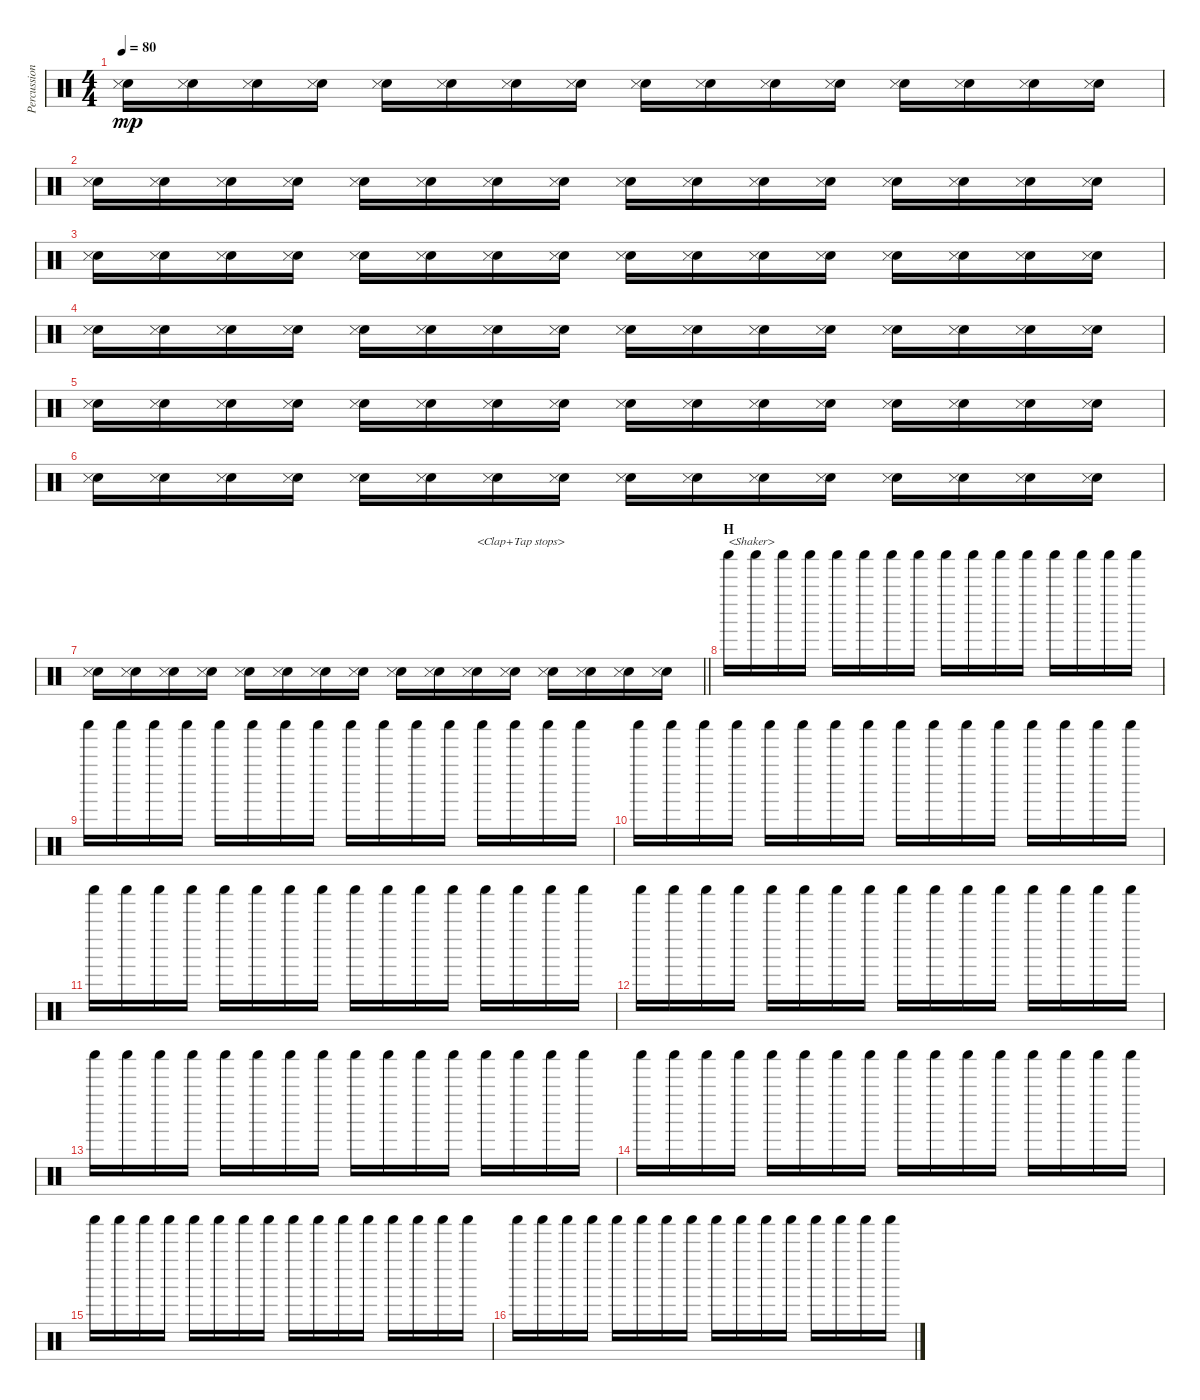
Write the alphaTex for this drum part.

\track ("Percussion" "Percussion") {instrument percussion}
\staff {score}
\articulation defaults
\ts (4 4)
\tempo 80
\clef neutral
\ks c
("Hand Clap (hit)" "Snare (side stick) 3").16{dy mp} ("Hand Clap (hit)" "Snare (side stick) 3").16 ("Hand Clap (hit)" "Snare (side stick) 3").16 ("Hand Clap (hit)" "Snare (side stick) 3").16 ("Hand Clap (hit)" "Snare (side stick) 3").16 ("Hand Clap (hit)" "Snare (side stick) 3").16 ("Hand Clap (hit)" "Snare (side stick) 3").16 ("Hand Clap (hit)" "Snare (side stick) 3").16 ("Hand Clap (hit)" "Snare (side stick) 3").16 ("Hand Clap (hit)" "Snare (side stick) 3").16 ("Hand Clap (hit)" "Snare (side stick) 3").16 ("Hand Clap (hit)" "Snare (side stick) 3").16 ("Hand Clap (hit)" "Snare (side stick) 3").16 ("Hand Clap (hit)" "Snare (side stick) 3").16 ("Hand Clap (hit)" "Snare (side stick) 3").16 ("Hand Clap (hit)" "Snare (side stick) 3").16 |
("Hand Clap (hit)" "Snare (side stick) 3").16 ("Hand Clap (hit)" "Snare (side stick) 3").16 ("Hand Clap (hit)" "Snare (side stick) 3").16 ("Hand Clap (hit)" "Snare (side stick) 3").16 ("Hand Clap (hit)" "Snare (side stick) 3").16 ("Hand Clap (hit)" "Snare (side stick) 3").16 ("Hand Clap (hit)" "Snare (side stick) 3").16 ("Hand Clap (hit)" "Snare (side stick) 3").16 ("Hand Clap (hit)" "Snare (side stick) 3").16 ("Hand Clap (hit)" "Snare (side stick) 3").16 ("Hand Clap (hit)" "Snare (side stick) 3").16 ("Hand Clap (hit)" "Snare (side stick) 3").16 ("Hand Clap (hit)" "Snare (side stick) 3").16 ("Hand Clap (hit)" "Snare (side stick) 3").16 ("Hand Clap (hit)" "Snare (side stick) 3").16 ("Hand Clap (hit)" "Snare (side stick) 3").16 |
("Hand Clap (hit)" "Snare (side stick) 3").16 ("Hand Clap (hit)" "Snare (side stick) 3").16 ("Hand Clap (hit)" "Snare (side stick) 3").16 ("Hand Clap (hit)" "Snare (side stick) 3").16 ("Hand Clap (hit)" "Snare (side stick) 3").16 ("Hand Clap (hit)" "Snare (side stick) 3").16 ("Hand Clap (hit)" "Snare (side stick) 3").16 ("Hand Clap (hit)" "Snare (side stick) 3").16 ("Hand Clap (hit)" "Snare (side stick) 3").16 ("Hand Clap (hit)" "Snare (side stick) 3").16 ("Hand Clap (hit)" "Snare (side stick) 3").16 ("Hand Clap (hit)" "Snare (side stick) 3").16 ("Hand Clap (hit)" "Snare (side stick) 3").16 ("Hand Clap (hit)" "Snare (side stick) 3").16 ("Hand Clap (hit)" "Snare (side stick) 3").16 ("Hand Clap (hit)" "Snare (side stick) 3").16 |
("Hand Clap (hit)" "Snare (side stick) 3").16 ("Hand Clap (hit)" "Snare (side stick) 3").16 ("Hand Clap (hit)" "Snare (side stick) 3").16 ("Hand Clap (hit)" "Snare (side stick) 3").16 ("Hand Clap (hit)" "Snare (side stick) 3").16 ("Hand Clap (hit)" "Snare (side stick) 3").16 ("Hand Clap (hit)" "Snare (side stick) 3").16 ("Hand Clap (hit)" "Snare (side stick) 3").16 ("Hand Clap (hit)" "Snare (side stick) 3").16 ("Hand Clap (hit)" "Snare (side stick) 3").16 ("Hand Clap (hit)" "Snare (side stick) 3").16 ("Hand Clap (hit)" "Snare (side stick) 3").16 ("Hand Clap (hit)" "Snare (side stick) 3").16 ("Hand Clap (hit)" "Snare (side stick) 3").16 ("Hand Clap (hit)" "Snare (side stick) 3").16 ("Hand Clap (hit)" "Snare (side stick) 3").16 |
("Hand Clap (hit)" "Snare (side stick) 3").16 ("Hand Clap (hit)" "Snare (side stick) 3").16 ("Hand Clap (hit)" "Snare (side stick) 3").16 ("Hand Clap (hit)" "Snare (side stick) 3").16 ("Hand Clap (hit)" "Snare (side stick) 3").16 ("Hand Clap (hit)" "Snare (side stick) 3").16 ("Hand Clap (hit)" "Snare (side stick) 3").16 ("Hand Clap (hit)" "Snare (side stick) 3").16 ("Hand Clap (hit)" "Snare (side stick) 3").16 ("Hand Clap (hit)" "Snare (side stick) 3").16 ("Hand Clap (hit)" "Snare (side stick) 3").16 ("Hand Clap (hit)" "Snare (side stick) 3").16 ("Hand Clap (hit)" "Snare (side stick) 3").16 ("Hand Clap (hit)" "Snare (side stick) 3").16 ("Hand Clap (hit)" "Snare (side stick) 3").16 ("Hand Clap (hit)" "Snare (side stick) 3").16 |
("Hand Clap (hit)" "Snare (side stick) 3").16 ("Hand Clap (hit)" "Snare (side stick) 3").16 ("Hand Clap (hit)" "Snare (side stick) 3").16 ("Hand Clap (hit)" "Snare (side stick) 3").16 ("Hand Clap (hit)" "Snare (side stick) 3").16 ("Hand Clap (hit)" "Snare (side stick) 3").16 ("Hand Clap (hit)" "Snare (side stick) 3").16 ("Hand Clap (hit)" "Snare (side stick) 3").16 ("Hand Clap (hit)" "Snare (side stick) 3").16 ("Hand Clap (hit)" "Snare (side stick) 3").16 ("Hand Clap (hit)" "Snare (side stick) 3").16 ("Hand Clap (hit)" "Snare (side stick) 3").16 ("Hand Clap (hit)" "Snare (side stick) 3").16 ("Hand Clap (hit)" "Snare (side stick) 3").16 ("Hand Clap (hit)" "Snare (side stick) 3").16 ("Hand Clap (hit)" "Snare (side stick) 3").16 |
\barLineRight lightlight
("Hand Clap (hit)" "Snare (side stick) 3").16 ("Hand Clap (hit)" "Snare (side stick) 3").16 ("Hand Clap (hit)" "Snare (side stick) 3").16 ("Hand Clap (hit)" "Snare (side stick) 3").16 ("Hand Clap (hit)" "Snare (side stick) 3").16 ("Hand Clap (hit)" "Snare (side stick) 3").16 ("Hand Clap (hit)" "Snare (side stick) 3").16 ("Hand Clap (hit)" "Snare (side stick) 3").16 ("Hand Clap (hit)" "Snare (side stick) 3").16 ("Hand Clap (hit)" "Snare (side stick) 3").16 ("Hand Clap (hit)" "Snare (side stick) 3").16{txt "<Clap+Tap stops>"} ("Hand Clap (hit)" "Snare (side stick) 3").16 ("Hand Clap (hit)" "Snare (side stick) 3").16 ("Hand Clap (hit)" "Snare (side stick) 3").16 ("Hand Clap (hit)" "Snare (side stick) 3").16 ("Hand Clap (hit)" "Snare (side stick) 3").16 |
\section ("" "H")
"Shaker (hit)".16{txt "<Shaker>"} "Shaker (hit)".16 "Shaker (hit)".16 "Shaker (hit)".16 "Shaker (hit)".16 "Shaker (hit)".16 "Shaker (hit)".16 "Shaker (hit)".16 "Shaker (hit)".16 "Shaker (hit)".16 "Shaker (hit)".16 "Shaker (hit)".16 "Shaker (hit)".16 "Shaker (hit)".16 "Shaker (hit)".16 "Shaker (hit)".16 |
"Shaker (hit)".16 "Shaker (hit)".16 "Shaker (hit)".16 "Shaker (hit)".16 "Shaker (hit)".16 "Shaker (hit)".16 "Shaker (hit)".16 "Shaker (hit)".16 "Shaker (hit)".16 "Shaker (hit)".16 "Shaker (hit)".16 "Shaker (hit)".16 "Shaker (hit)".16 "Shaker (hit)".16 "Shaker (hit)".16 "Shaker (hit)".16 |
"Shaker (hit)".16 "Shaker (hit)".16 "Shaker (hit)".16 "Shaker (hit)".16 "Shaker (hit)".16 "Shaker (hit)".16 "Shaker (hit)".16 "Shaker (hit)".16 "Shaker (hit)".16 "Shaker (hit)".16 "Shaker (hit)".16 "Shaker (hit)".16 "Shaker (hit)".16 "Shaker (hit)".16 "Shaker (hit)".16 "Shaker (hit)".16 |
"Shaker (hit)".16 "Shaker (hit)".16 "Shaker (hit)".16 "Shaker (hit)".16 "Shaker (hit)".16 "Shaker (hit)".16 "Shaker (hit)".16 "Shaker (hit)".16 "Shaker (hit)".16 "Shaker (hit)".16 "Shaker (hit)".16 "Shaker (hit)".16 "Shaker (hit)".16 "Shaker (hit)".16 "Shaker (hit)".16 "Shaker (hit)".16 |
"Shaker (hit)".16 "Shaker (hit)".16 "Shaker (hit)".16 "Shaker (hit)".16 "Shaker (hit)".16 "Shaker (hit)".16 "Shaker (hit)".16 "Shaker (hit)".16 "Shaker (hit)".16 "Shaker (hit)".16 "Shaker (hit)".16 "Shaker (hit)".16 "Shaker (hit)".16 "Shaker (hit)".16 "Shaker (hit)".16 "Shaker (hit)".16 |
"Shaker (hit)".16 "Shaker (hit)".16 "Shaker (hit)".16 "Shaker (hit)".16 "Shaker (hit)".16 "Shaker (hit)".16 "Shaker (hit)".16 "Shaker (hit)".16 "Shaker (hit)".16 "Shaker (hit)".16 "Shaker (hit)".16 "Shaker (hit)".16 "Shaker (hit)".16 "Shaker (hit)".16 "Shaker (hit)".16 "Shaker (hit)".16 |
"Shaker (hit)".16 "Shaker (hit)".16 "Shaker (hit)".16 "Shaker (hit)".16 "Shaker (hit)".16 "Shaker (hit)".16 "Shaker (hit)".16 "Shaker (hit)".16 "Shaker (hit)".16 "Shaker (hit)".16 "Shaker (hit)".16 "Shaker (hit)".16 "Shaker (hit)".16 "Shaker (hit)".16 "Shaker (hit)".16 "Shaker (hit)".16 |
"Shaker (hit)".16 "Shaker (hit)".16 "Shaker (hit)".16 "Shaker (hit)".16 "Shaker (hit)".16 "Shaker (hit)".16 "Shaker (hit)".16 "Shaker (hit)".16 "Shaker (hit)".16 "Shaker (hit)".16 "Shaker (hit)".16 "Shaker (hit)".16 "Shaker (hit)".16 "Shaker (hit)".16 "Shaker (hit)".16 "Shaker (hit)".16 |
"Shaker (hit)".16 "Shaker (hit)".16 "Shaker (hit)".16 "Shaker (hit)".16 "Shaker (hit)".16 "Shaker (hit)".16 "Shaker (hit)".16 "Shaker (hit)".16 "Shaker (hit)".16 "Shaker (hit)".16 "Shaker (hit)".16 "Shaker (hit)".16 "Shaker (hit)".16 "Shaker (hit)".16 "Shaker (hit)".16 "Shaker (hit)".16
